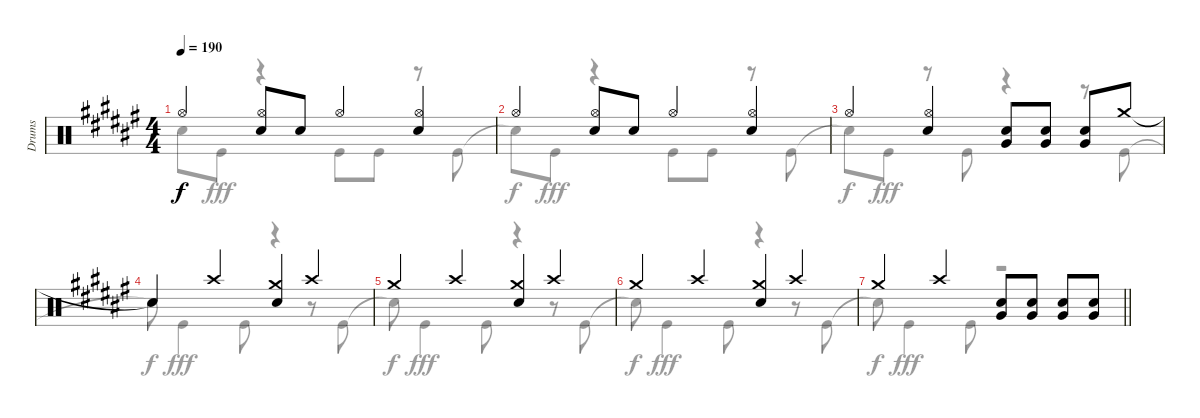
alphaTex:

\track ("Drums" "Drums") {instrument percussion}
\staff {score}
\articulation defaults
\voice
\ts (4 4)
\tempo 190
\clef neutral
\ks f# "Hi-Hat (open)".4{dy f}
("Hi-Hat (open)" "Snare (hit) 2").8 "Snare (hit) 2".8 "Hi-Hat (open)".4 ("Hi-Hat (open)" "Snare (hit) 2").4 |
"Hi-Hat (open)".4 ("Hi-Hat (open)" "Snare (hit) 2").8 "Snare (hit) 2".8 "Hi-Hat (open)".4 ("Hi-Hat (open)" "Snare (hit) 2").4 |
"Hi-Hat (open)".4 ("Hi-Hat (open)" "Snare (hit) 2").4 ("Snare (hit) 2" "Very Low Tom (hit)").8 ("Snare (hit) 2" "Very Low Tom (hit)").8 ("Snare (hit) 2" "Very Low Tom (hit)").8 "Crash medium (hit)".8 |
"Snare (hit)"{t}.4 "Crash high (hit)".4 ("Crash medium (hit)" "Snare (hit) 2").4 "Crash high (hit)".4 |
"Crash medium (hit)".4 "Crash high (hit)".4 ("Crash medium (hit)" "Snare (hit) 2").4 "Crash high (hit)".4 |
"Crash medium (hit)".4 "Crash high (hit)".4 ("Crash medium (hit)" "Snare (hit) 2").4 "Crash high (hit)".4 |
\barLineRight lightlight "Crash medium (hit)".4 "Crash high (hit)".4
("Snare (hit) 2" "Very Low Tom (hit)").8 ("Snare (hit) 2" "Very Low Tom (hit)").8 ("Snare (hit) 2" "Very Low Tom (hit)").8 ("Snare (hit) 2" "Very Low Tom (hit)").8 |
\voice
\clef neutral
\ottava regular
\simile none
\ks f# "Snare (hit)"{t}.8{dy f} "Kick (hit)".8{dy fff}
r.4 "Kick (hit)".8 "Kick (hit)".8 r.8 "Kick (hit)".8 |
"Snare (hit)"{t}.8{dy f} "Kick (hit)".8{dy fff} r.4 "Kick (hit)".8 "Kick (hit)".8 r.8 "Kick (hit)".8 |
"Snare (hit)"{t}.8{dy f} "Kick (hit)".8{dy fff} r.8 "Kick (hit)".8 r.4 r.8 "Kick (hit)".8 |
"Snare (hit)"{t}.8{dy f} "Kick (hit)".4{dy fff} "Kick (hit)".8 r.4 r.8 "Kick (hit)".8 |
"Snare (hit)"{t}.8{dy f} "Kick (hit)".4{dy fff} "Kick (hit)".8 r.4 r.8 "Kick (hit)".8 |
"Snare (hit)"{t}.8{dy f} "Kick (hit)".4{dy fff} "Kick (hit)".8 r.4 r.8 "Kick (hit)".8 |
\barLineRight lightlight "Snare (hit)"{t}.8{dy f} "Kick (hit)".4{dy fff} "Kick (hit)".8
r.2 |
